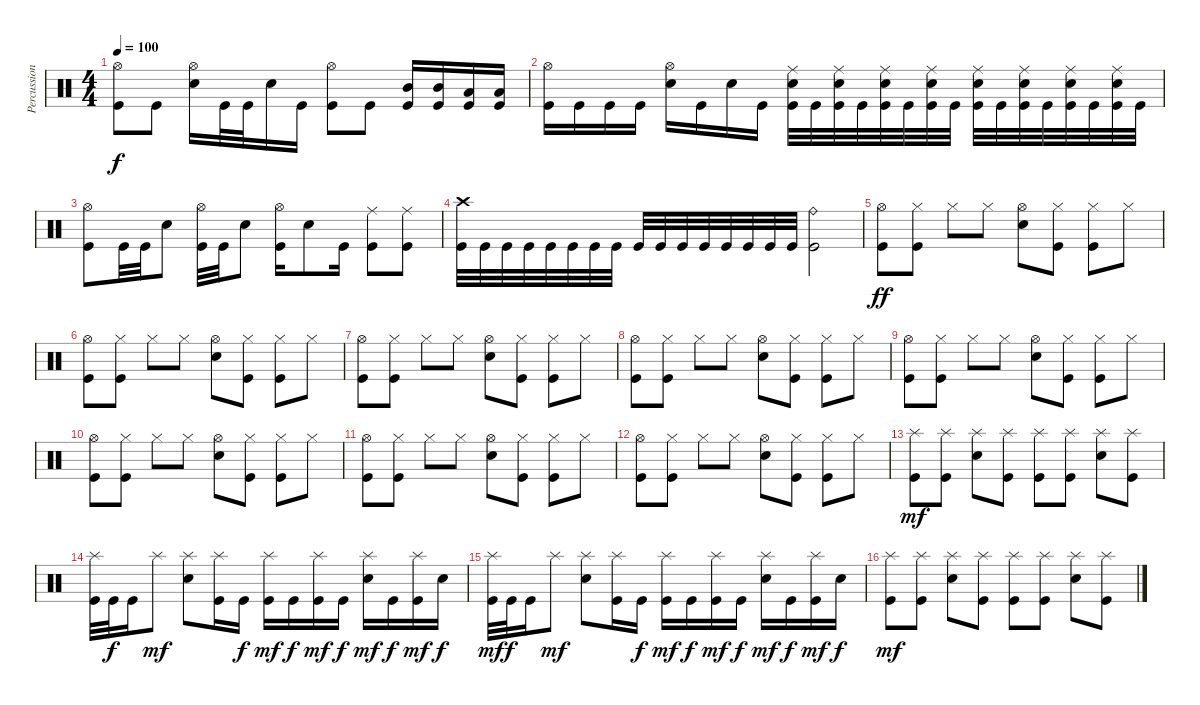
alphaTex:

\track ("Percussion" "Percussion") {instrument percussion}
\staff {score}
\articulation defaults
\ts (4 4)
\tempo 100
\clef neutral
\ks c
("Hi-Hat (open)" "Kick (hit)").8{dy f} "Kick (hit)".8 ("Hi-Hat (open)" "Electric Snare (hit)").16 "Kick (hit)".32 "Kick (hit)".32 "Electric Snare (hit)".16 "Kick (hit)".16 ("Hi-Hat (open)" "Kick (hit)").8 "Kick (hit)".8 ("Mid Tom (hit)" "Kick (hit)").16 ("Mid Tom (hit)" "Kick (hit)").16 ("Low Tom (hit)" "Kick (hit)").16 ("Low Tom (hit)" "Kick (hit)").16 |
("Hi-Hat (open)" "Kick (hit)").16 "Kick (hit)".16 "Kick (hit)".16 "Kick (hit)".16 ("Hi-Hat (open)" "Electric Snare (hit)").16 "Kick (hit)".16 "Electric Snare (hit)".16 "Kick (hit)".16 ("Ride (middle)" "Electric Snare (hit)" "Kick (hit)").32 "Kick (hit)".32 ("Ride (middle)" "Electric Snare (hit)" "Kick (hit)").32 "Kick (hit)".32 ("Ride (middle)" "Electric Snare (hit)" "Kick (hit)").32 "Kick (hit)".32 ("Ride (middle)" "Electric Snare (hit)" "Kick (hit)").32 "Kick (hit)".32 ("Ride (middle)" "Electric Snare (hit)" "Kick (hit)").32 "Kick (hit)".32 ("Ride (middle)" "Electric Snare (hit)" "Kick (hit)").32 "Kick (hit)".32 ("Ride (middle)" "Electric Snare (hit)" "Kick (hit)").32 "Kick (hit)".32 ("Ride (middle)" "Electric Snare (hit)" "Kick (hit)").32 "Kick (hit)".32 |
("Hi-Hat (open)" "Kick (hit)").8 "Kick (hit)".32 "Kick (hit)".32 "Electric Snare (hit)".8 ("Hi-Hat (open)" "Kick (hit)").32 "Kick (hit)".32 "Electric Snare (hit)".8 ("Hi-Hat (open)" "Kick (hit)").16 "Electric Snare (hit)".8 "Kick (hit)".16 ("Ride (middle)" "Kick (hit)").8 ("Ride (middle)" "Kick (hit)").8 |
("Crash high (hit)" "Kick (hit)").32 "Kick (hit)".32 "Kick (hit)".32 "Kick (hit)".32 "Kick (hit)".32 "Kick (hit)".32 "Kick (hit)".32 "Kick (hit)".32 "Kick (hit)".32 "Kick (hit)".32 "Kick (hit)".32 "Kick (hit)".32 "Kick (hit)".32 "Kick (hit)".32 "Kick (hit)".32 "Kick (hit)".32 ("Ride (bell)" "Kick (hit)").2 |
("Hi-Hat (open)" "Kick (hit)").8{dy ff} ("Hi-Hat (closed)" "Kick (hit)").8 "Hi-Hat (closed)".8 "Hi-Hat (closed)".8 ("Hi-Hat (open)" "Electric Snare (hit)").8 ("Hi-Hat (closed)" "Kick (hit)").8 ("Hi-Hat (closed)" "Kick (hit)").8 "Hi-Hat (closed)".8 |
("Hi-Hat (open)" "Kick (hit)").8 ("Hi-Hat (closed)" "Kick (hit)").8 "Hi-Hat (closed)".8 "Hi-Hat (closed)".8 ("Hi-Hat (open)" "Electric Snare (hit)").8 ("Hi-Hat (closed)" "Kick (hit)").8 ("Hi-Hat (closed)" "Kick (hit)").8 "Hi-Hat (closed)".8 |
("Hi-Hat (open)" "Kick (hit)").8 ("Hi-Hat (closed)" "Kick (hit)").8 "Hi-Hat (closed)".8 "Hi-Hat (closed)".8 ("Hi-Hat (open)" "Electric Snare (hit)").8 ("Hi-Hat (closed)" "Kick (hit)").8 ("Hi-Hat (closed)" "Kick (hit)").8 "Hi-Hat (closed)".8 |
("Hi-Hat (open)" "Kick (hit)").8 ("Hi-Hat (closed)" "Kick (hit)").8 "Hi-Hat (closed)".8 "Hi-Hat (closed)".8 ("Hi-Hat (open)" "Electric Snare (hit)").8 ("Hi-Hat (closed)" "Kick (hit)").8 ("Hi-Hat (closed)" "Kick (hit)").8 "Hi-Hat (closed)".8 |
("Hi-Hat (open)" "Kick (hit)").8 ("Hi-Hat (closed)" "Kick (hit)").8 "Hi-Hat (closed)".8 "Hi-Hat (closed)".8 ("Hi-Hat (open)" "Electric Snare (hit)").8 ("Hi-Hat (closed)" "Kick (hit)").8 ("Hi-Hat (closed)" "Kick (hit)").8 "Hi-Hat (closed)".8 |
("Hi-Hat (open)" "Kick (hit)").8 ("Hi-Hat (closed)" "Kick (hit)").8 "Hi-Hat (closed)".8 "Hi-Hat (closed)".8 ("Hi-Hat (open)" "Electric Snare (hit)").8 ("Hi-Hat (closed)" "Kick (hit)").8 ("Hi-Hat (closed)" "Kick (hit)").8 "Hi-Hat (closed)".8 |
("Hi-Hat (open)" "Kick (hit)").8 ("Hi-Hat (closed)" "Kick (hit)").8 "Hi-Hat (closed)".8 "Hi-Hat (closed)".8 ("Hi-Hat (open)" "Electric Snare (hit)").8 ("Hi-Hat (closed)" "Kick (hit)").8 ("Hi-Hat (closed)" "Kick (hit)").8 "Hi-Hat (closed)".8 |
("Hi-Hat (open)" "Kick (hit)").8 ("Hi-Hat (closed)" "Kick (hit)").8 "Hi-Hat (closed)".8 "Hi-Hat (closed)".8 ("Hi-Hat (open)" "Electric Snare (hit)").8 ("Hi-Hat (closed)" "Kick (hit)").8 ("Hi-Hat (closed)" "Kick (hit)").8 "Hi-Hat (closed)".8 |
("Splash (hit)" "Kick (hit)").8{dy mf} ("Splash (hit)" "Kick (hit)").8 ("Splash (hit)" "Electric Snare (hit)").8 ("Splash (hit)" "Kick (hit)").8 ("Splash (hit)" "Kick (hit)").8 ("Splash (hit)" "Kick (hit)").8 ("Splash (hit)" "Electric Snare (hit)").8 ("Splash (hit)" "Kick (hit)").8 |
("Splash (hit)" "Kick (hit)").32 "Kick (hit)".32{dy f} "Kick (hit)".16 "Splash (hit)".8{dy mf} ("Splash (hit)" "Electric Snare (hit)").8 ("Splash (hit)" "Kick (hit)").16 "Kick (hit)".16{dy f} ("Splash (hit)" "Kick (hit)").16{dy mf} "Kick (hit)".16{dy f} ("Splash (hit)" "Kick (hit)").16{dy mf} "Kick (hit)".16{dy f} ("Splash (hit)" "Electric Snare (hit)").16{dy mf} "Kick (hit)".16{dy f} ("Splash (hit)" "Kick (hit)").16{dy mf} "Electric Snare (hit)".16{dy f} |
("Splash (hit)" "Kick (hit)").32{dy mf} "Kick (hit)".32{dy f} "Kick (hit)".16 "Splash (hit)".8{dy mf} ("Splash (hit)" "Electric Snare (hit)").8 ("Splash (hit)" "Kick (hit)").16 "Kick (hit)".16{dy f} ("Splash (hit)" "Kick (hit)").16{dy mf} "Kick (hit)".16{dy f} ("Splash (hit)" "Kick (hit)").16{dy mf} "Kick (hit)".16{dy f} ("Splash (hit)" "Electric Snare (hit)").16{dy mf} "Kick (hit)".16{dy f} ("Splash (hit)" "Kick (hit)").16{dy mf} "Electric Snare (hit)".16{dy f} |
("Splash (hit)" "Kick (hit)").8{dy mf} ("Splash (hit)" "Kick (hit)").8 ("Splash (hit)" "Electric Snare (hit)").8 ("Splash (hit)" "Kick (hit)").8 ("Splash (hit)" "Kick (hit)").8 ("Splash (hit)" "Kick (hit)").8 ("Splash (hit)" "Electric Snare (hit)").8 ("Splash (hit)" "Kick (hit)").8
